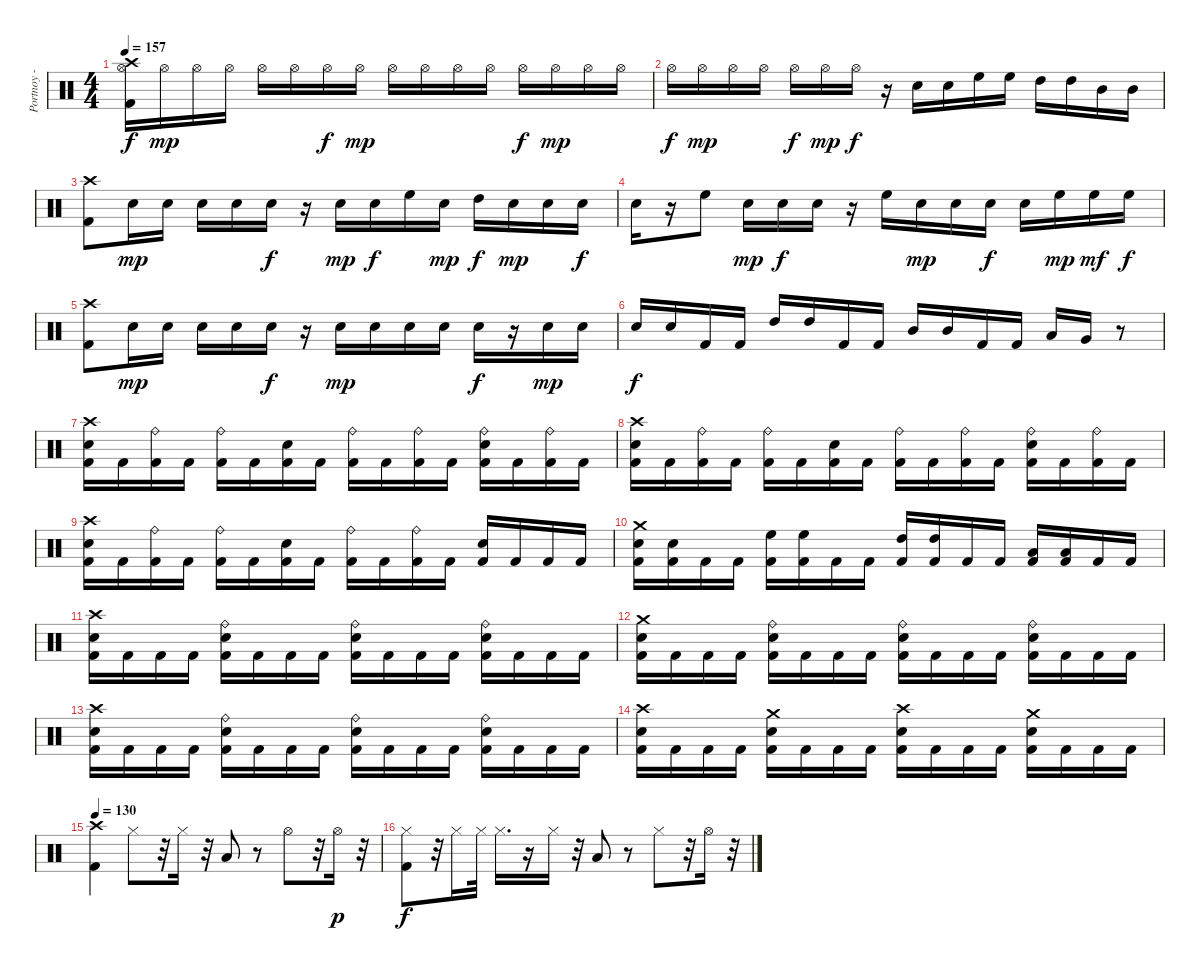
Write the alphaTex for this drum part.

\track ("Portnoy - Drums" "Portnoy - ") {instrument percussion}
\staff {score}
\articulation defaults
\ts (4 4)
\tempo 157
\clef neutral
\ks c
("Hi-Hat (open)" "Crash high (hit)" "Kick (hit) 2").16{dy f} "Hi-Hat (open)".16{dy mp} "Hi-Hat (open)".16 "Hi-Hat (open)".16 "Hi-Hat (open)".16 "Hi-Hat (open)".16 "Hi-Hat (open)".16{dy f} "Hi-Hat (open)".16{dy mp} "Hi-Hat (open)".16 "Hi-Hat (open)".16 "Hi-Hat (open)".16 "Hi-Hat (open)".16 "Hi-Hat (open)".16{dy f} "Hi-Hat (open)".16{dy mp} "Hi-Hat (open)".16 "Hi-Hat (open)".16 |
"Hi-Hat (open)".16{dy f} "Hi-Hat (open)".16{dy mp} "Hi-Hat (open)".16 "Hi-Hat (open)".16 "Hi-Hat (open)".16{dy f} "Hi-Hat (open)".16{dy mp} "Hi-Hat (open)".16{dy f} r.16 "Electric Snare (hit)".16 "Electric Snare (hit)".16 "High Floor Tom (hit)".16 "High Floor Tom (hit)".16 "High Tom (hit)".16 "High Tom (hit)".16 "Mid Tom (hit)".16 "Mid Tom (hit)".16 |
("Crash high (hit)" "Kick (hit) 2").8 "Electric Snare (hit)".16{dy mp} "Electric Snare (hit)".16 "Electric Snare (hit)".16 "Electric Snare (hit)".16 "Electric Snare (hit)".16{dy f} r.16 "Electric Snare (hit)".16{dy mp} "Electric Snare (hit)".16{dy f} "High Floor Tom (hit)".16 "Electric Snare (hit)".16{dy mp} "High Tom (hit)".16{dy f} "Electric Snare (hit)".16{dy mp} "Electric Snare (hit)".16 "Electric Snare (hit)".16{dy f} |
"Electric Snare (hit)".16 r.16 "High Floor Tom (hit)".8 "Electric Snare (hit)".16{dy mp} "Electric Snare (hit)".16{dy f} "Electric Snare (hit)".16 r.16 "High Floor Tom (hit)".16 "Electric Snare (hit)".16{dy mp} "Electric Snare (hit)".16 "Electric Snare (hit)".16{dy f} "Electric Snare (hit)".16 "High Floor Tom (hit)".16{dy mp} "High Floor Tom (hit)".16{dy mf} "High Floor Tom (hit)".16{dy f} |
("Kick (hit) 2" "Crash high (hit)").8 "Electric Snare (hit)".16{dy mp} "Electric Snare (hit)".16 "Electric Snare (hit)".16 "Electric Snare (hit)".16 "Electric Snare (hit)".16{dy f} r.16 "Electric Snare (hit)".16{dy mp} "Electric Snare (hit)".16 "Electric Snare (hit)".16 "Electric Snare (hit)".16 "Electric Snare (hit)".16{dy f} r.16 "Electric Snare (hit)".16{dy mp} "Electric Snare (hit)".16 |
"Electric Snare (hit)".16{dy f} "Electric Snare (hit)".16 "Kick (hit) 2".16 "Kick (hit) 2".16 "High Tom (hit)".16 "High Tom (hit)".16 "Kick (hit) 2".16 "Kick (hit) 2".16 "Mid Tom (hit)".16 "Mid Tom (hit)".16 "Kick (hit) 2".16 "Kick (hit) 2".16 "Low Tom (hit)".16 "Very Low Tom (hit)".16 r.8 |
("Crash high (hit)" "Electric Snare (hit)" "Kick (hit) 2").16 "Kick (hit) 2".16 ("Kick (hit) 2" "Ride (bell)").16 "Kick (hit) 2".16 ("Kick (hit) 2" "Ride (bell)").16 "Kick (hit) 2".16 ("Kick (hit) 2" "Electric Snare (hit)").16 "Kick (hit) 2".16 ("Kick (hit) 2" "Ride (bell)").16 "Kick (hit) 2".16 ("Kick (hit) 2" "Ride (bell)").16 "Kick (hit) 2".16 ("Kick (hit) 2" "Electric Snare (hit)" "Ride (bell)").16 "Kick (hit) 2".16 ("Kick (hit) 2" "Ride (bell)").16 "Kick (hit) 2".16 |
("Kick (hit) 2" "Electric Snare (hit)" "Crash high (hit)").16 "Kick (hit) 2".16 ("Kick (hit) 2" "Ride (bell)").16 "Kick (hit) 2".16 ("Kick (hit) 2" "Ride (bell)").16 "Kick (hit) 2".16 ("Kick (hit) 2" "Electric Snare (hit)").16 "Kick (hit) 2".16 ("Kick (hit) 2" "Ride (bell)").16 "Kick (hit) 2".16 ("Kick (hit) 2" "Ride (bell)").16 "Kick (hit) 2".16 ("Kick (hit) 2" "Electric Snare (hit)" "Ride (bell)").16 "Kick (hit) 2".16 ("Kick (hit) 2" "Ride (bell)").16 "Kick (hit) 2".16 |
("Kick (hit) 2" "Electric Snare (hit)" "Crash high (hit)").16 "Kick (hit) 2".16 ("Kick (hit) 2" "Ride (bell)").16 "Kick (hit) 2".16 ("Kick (hit) 2" "Ride (bell)").16 "Kick (hit) 2".16 ("Kick (hit) 2" "Electric Snare (hit)").16 "Kick (hit) 2".16 ("Kick (hit) 2" "Ride (bell)").16 "Kick (hit) 2".16 ("Kick (hit) 2" "Ride (bell)").16 "Kick (hit) 2".16 ("Kick (hit) 2" "Electric Snare (hit)").16 "Kick (hit) 2".16 "Kick (hit) 2".16 "Kick (hit) 2".16 |
("Kick (hit) 2" "Crash medium (hit)" "Electric Snare (hit)").16 ("Kick (hit) 2" "Electric Snare (hit)").16 "Kick (hit) 2".16 "Kick (hit) 2".16 ("Kick (hit) 2" "High Floor Tom (hit)").16 ("Kick (hit) 2" "High Floor Tom (hit)").16 "Kick (hit) 2".16 "Kick (hit) 2".16 ("Kick (hit) 2" "High Tom (hit)").16 ("Kick (hit) 2" "High Tom (hit)").16 "Kick (hit) 2".16 "Kick (hit) 2".16 ("Kick (hit) 2" "Low Tom (hit)").16 ("Kick (hit) 2" "Low Tom (hit)").16 "Kick (hit) 2".16 "Kick (hit) 2".16 |
("Kick (hit) 2" "Crash high (hit)" "Electric Snare (hit)").16 "Kick (hit) 2".16 "Kick (hit) 2".16 "Kick (hit) 2".16 ("Kick (hit) 2" "Electric Snare (hit)" "Ride (bell)").16 "Kick (hit) 2".16 "Kick (hit) 2".16 "Kick (hit) 2".16 ("Kick (hit) 2" "Electric Snare (hit)" "Ride (bell)").16 "Kick (hit) 2".16 "Kick (hit) 2".16 "Kick (hit) 2".16 ("Kick (hit) 2" "Electric Snare (hit)" "Ride (bell)").16 "Kick (hit) 2".16 "Kick (hit) 2".16 "Kick (hit) 2".16 |
("Kick (hit) 2" "Electric Snare (hit)" "Crash medium (hit)").16 "Kick (hit) 2".16 "Kick (hit) 2".16 "Kick (hit) 2".16 ("Kick (hit) 2" "Electric Snare (hit)" "Ride (bell)").16 "Kick (hit) 2".16 "Kick (hit) 2".16 "Kick (hit) 2".16 ("Kick (hit) 2" "Electric Snare (hit)" "Ride (bell)").16 "Kick (hit) 2".16 "Kick (hit) 2".16 "Kick (hit) 2".16 ("Kick (hit) 2" "Electric Snare (hit)" "Ride (bell)").16 "Kick (hit) 2".16 "Kick (hit) 2".16 "Kick (hit) 2".16 |
("Kick (hit) 2" "Electric Snare (hit)" "Crash high (hit)").16 "Kick (hit) 2".16 "Kick (hit) 2".16 "Kick (hit) 2".16 ("Kick (hit) 2" "Electric Snare (hit)" "Ride (bell)").16 "Kick (hit) 2".16 "Kick (hit) 2".16 "Kick (hit) 2".16 ("Kick (hit) 2" "Electric Snare (hit)" "Ride (bell)").16 "Kick (hit) 2".16 "Kick (hit) 2".16 "Kick (hit) 2".16 ("Kick (hit) 2" "Electric Snare (hit)" "Ride (bell)").16 "Kick (hit) 2".16 "Kick (hit) 2".16 "Kick (hit) 2".16 |
("Kick (hit) 2" "Electric Snare (hit)" "Crash high (hit)").16 "Kick (hit) 2".16 "Kick (hit) 2".16 "Kick (hit) 2".16 ("Kick (hit) 2" "Electric Snare (hit)" "Crash medium (hit)").16 "Kick (hit) 2".16 "Kick (hit) 2".16 "Kick (hit) 2".16 ("Kick (hit) 2" "Electric Snare (hit)" "Crash high (hit)").16 "Kick (hit) 2".16 "Kick (hit) 2".16 "Kick (hit) 2".16 ("Kick (hit) 2" "Electric Snare (hit)" "Crash medium (hit)").16 "Kick (hit) 2".16 "Kick (hit) 2".16 "Kick (hit) 2".16 |
\tempo 130
("Kick (hit) 2" "Crash high (hit)").4 "Hi-Hat (closed)".8 r.32 "Hi-Hat (closed)".16 r.32 "Low Tom (hit)".8 r.8 "Hi-Hat (open)".8 r.32 "Hi-Hat (open)".16{dy p} r.32 |
("Kick (hit) 2" "Hi-Hat (closed)").8{dy f} r.32 "Hi-Hat (closed)".16 "Hi-Hat (closed)".32 "Hi-Hat (closed)".16{d} r.16 "Hi-Hat (closed)".16 r.32 "Low Tom (hit)".8 r.8 "Hi-Hat (closed)".8 r.32 "Hi-Hat (open)".16 r.32
